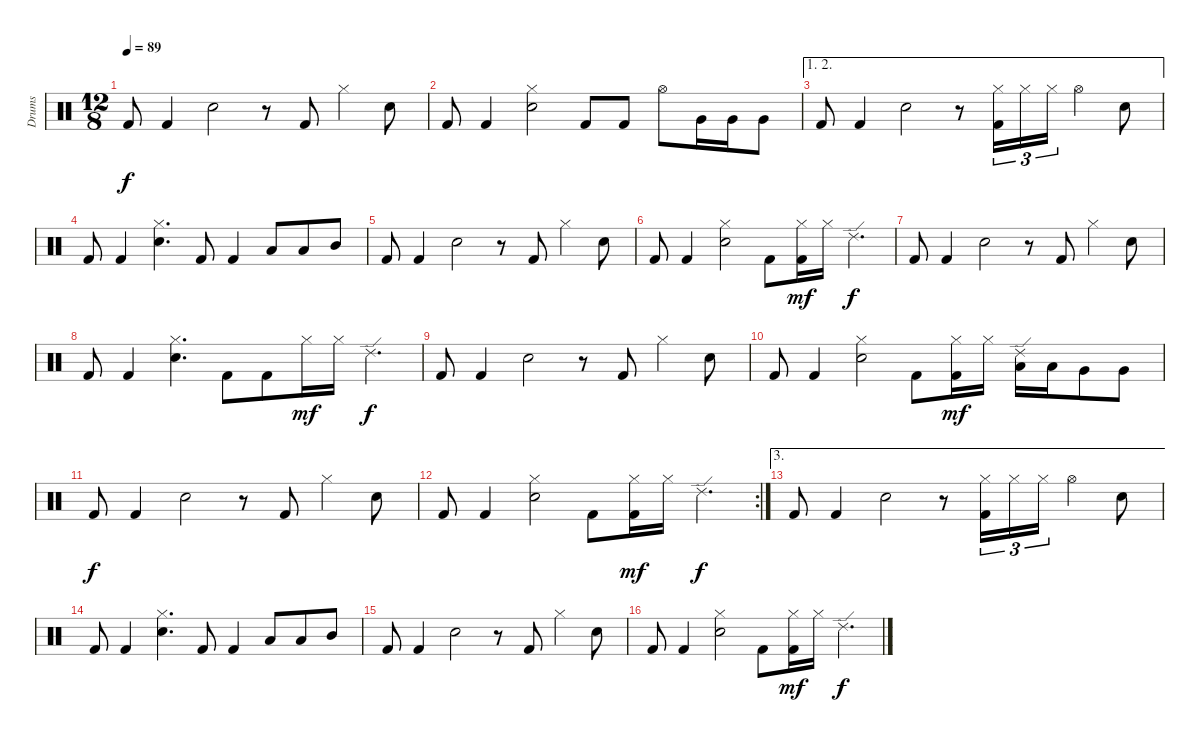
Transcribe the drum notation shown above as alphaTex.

\track ("Drums" "Drums") {instrument percussion}
\staff {score}
\articulation defaults
\ts (12 8)
\tempo 89
\clef neutral
\ks c "Kick (hit) 2".8{dy f} "Kick (hit) 2".4 "Electric Snare (hit)".2
r.8 "Kick (hit) 2".8 "Hi-Hat (closed)".4 "Snare (hit) 2".8 |
"Kick (hit) 2".8 "Kick (hit) 2".4 ("Hi-Hat (closed)" "Snare (hit) 2").2 "Kick (hit) 2".8 "Kick (hit) 2".8 "Hi-Hat (open)".8 "Very Low Tom (hit)".16 "Very Low Tom (hit)".16 "Very Low Tom (hit)".8 |
\ae (1 2)
"Kick (hit) 2".8 "Kick (hit) 2".4 "Electric Snare (hit)".2 r.8 ("Hi-Hat (closed)" "Kick (hit) 2").16{tu (3 2)} "Hi-Hat (closed)".16{tu (3 2)} "Hi-Hat (closed)".16{tu (3 2)} "Hi-Hat (open)".4 "Snare (hit) 2".8 |
"Kick (hit) 2".8 "Kick (hit) 2".4 ("Hi-Hat (closed)" "Snare (hit) 2").4{d} "Kick (hit) 2".8 "Kick (hit) 2".4 "Low Floor Tom (hit)".8 "Low Floor Tom (hit)".8 "Mid Tom (hit)".8 |
"Kick (hit) 2".8 "Kick (hit) 2".4 "Electric Snare (hit)".2 r.8 "Kick (hit) 2".8 "Hi-Hat (closed)".4 "Snare (hit) 2".8 |
"Kick (hit) 2".8 "Kick (hit) 2".4 ("Snare (hit) 2" "Hi-Hat (closed)").2 "Kick (hit) 2".8 ("Kick (hit) 2" "Hi-Hat (closed)").16{dy mf} "Hi-Hat (closed)".16 "Ride (edge) 2".4{d dy f} |
"Kick (hit) 2".8 "Kick (hit) 2".4 "Electric Snare (hit)".2 r.8 "Kick (hit) 2".8 "Hi-Hat (closed)".4 "Snare (hit) 2".8 |
"Kick (hit) 2".8 "Kick (hit) 2".4 ("Snare (hit) 2" "Hi-Hat (closed)").4{d} "Kick (hit) 2".8 "Kick (hit) 2".8 "Hi-Hat (closed)".16{dy mf} "Hi-Hat (closed)".16 "Ride (edge) 2".4{d dy f} |
"Kick (hit) 2".8 "Kick (hit) 2".4 "Electric Snare (hit)".2 r.8 "Kick (hit) 2".8 "Hi-Hat (closed)".4 "Snare (hit) 2".8 |
"Kick (hit) 2".8 "Kick (hit) 2".4 ("Hi-Hat (closed)" "Snare (hit) 2").2 "Kick (hit) 2".8 ("Hi-Hat (closed)" "Kick (hit) 2").16{dy mf} "Hi-Hat (closed)".16 ("Low Floor Tom (hit)" "Ride (edge) 2").16 "Low Floor Tom (hit)".16 "Very Low Tom (hit)".8 "Very Low Tom (hit)".8 |
"Kick (hit) 2".8{dy f} "Kick (hit) 2".4 "Electric Snare (hit)".2 r.8 "Kick (hit) 2".8 "Hi-Hat (closed)".4 "Snare (hit) 2".8 |
\rc 2 "Kick (hit) 2".8 "Kick (hit) 2".4
("Hi-Hat (closed)" "Snare (hit) 2").2 "Kick (hit) 2".8 ("Hi-Hat (closed)" "Kick (hit) 2").16{dy mf} "Hi-Hat (closed)".16 "Ride (edge) 2".4{d dy f} |
\ae 3 "Kick (hit) 2".8 "Kick (hit) 2".4 "Electric Snare (hit)".2
r.8 ("Hi-Hat (closed)" "Kick (hit) 2").16{tu (3 2)} "Hi-Hat (closed)".16{tu (3 2)} "Hi-Hat (closed)".16{tu (3 2)} "Hi-Hat (open)".4 "Snare (hit) 2".8 |
"Kick (hit) 2".8 "Kick (hit) 2".4 ("Hi-Hat (closed)" "Snare (hit) 2").4{d} "Kick (hit) 2".8 "Kick (hit) 2".4 "Low Floor Tom (hit)".8 "Low Floor Tom (hit)".8 "Mid Tom (hit)".8 |
"Kick (hit) 2".8 "Kick (hit) 2".4 "Electric Snare (hit)".2 r.8 "Kick (hit) 2".8 "Hi-Hat (closed)".4 "Snare (hit) 2".8 |
"Kick (hit) 2".8 "Kick (hit) 2".4 ("Snare (hit) 2" "Hi-Hat (closed)").2 "Kick (hit) 2".8 ("Kick (hit) 2" "Hi-Hat (closed)").16{dy mf} "Hi-Hat (closed)".16 "Ride (edge) 2".4{d dy f}
